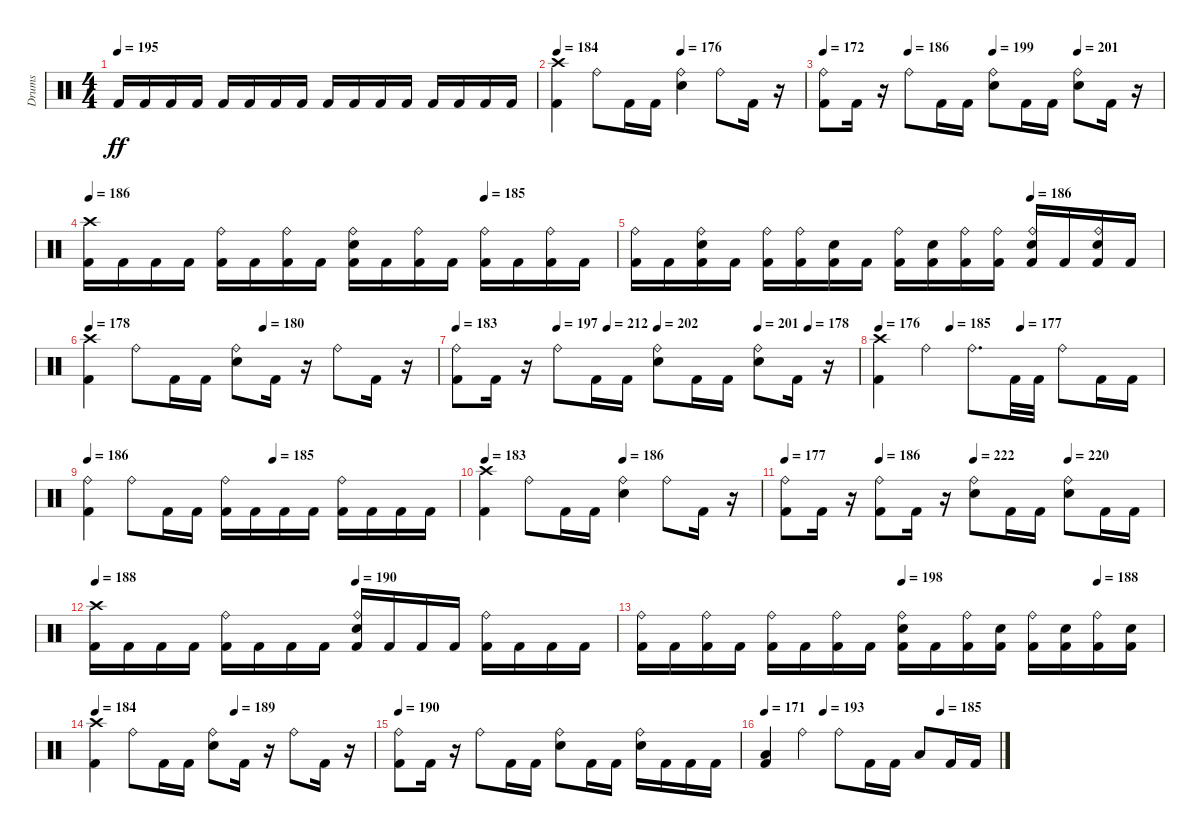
\track ("Drums" "Drums") {instrument percussion}
\staff {score}
\articulation defaults
\ts (4 4)
\tempo 195
\clef neutral
\ks c "Kick (hit) 2".16{dy ff} "Kick (hit) 2".16 "Kick (hit) 2".16 "Kick (hit) 2".16 "Kick (hit) 2".16 "Kick (hit) 2".16 "Kick (hit) 2".16 "Kick (hit) 2".16 "Kick (hit) 2".16 "Kick (hit) 2".16 "Kick (hit) 2".16 "Kick (hit) 2".16 "Kick (hit) 2".16 "Kick (hit) 2".16 "Kick (hit) 2".16 "Kick (hit) 2".16
|
\tempo 184
\tempo (176 0.5)
("Kick (hit) 2" "Crash high (hit)").4 "Ride (bell)".8 "Kick (hit) 2".16 "Kick (hit) 2".16 ("Snare (hit) 2" "Ride (bell)").4 "Ride (bell)".8 "Kick (hit) 2".16 r.16 |
\tempo 172
\tempo (186 0.25)
\tempo (199 0.5)
\tempo (201 0.75)
("Kick (hit) 2" "Ride (bell)").8 "Kick (hit) 2".16 r.16 "Ride (bell)".8 "Kick (hit) 2".16 "Kick (hit) 2".16 ("Snare (hit) 2" "Ride (bell)").8 "Kick (hit) 2".16 "Kick (hit) 2".16 ("Snare (hit) 2" "Ride (bell)").8 "Kick (hit) 2".16 r.16 |
\tempo 186
\tempo (185 0.75)
("Kick (hit) 2" "Crash high (hit)").16 "Kick (hit) 2".16 "Kick (hit) 2".16 "Kick (hit) 2".16 ("Kick (hit) 2" "Ride (bell)").16 "Kick (hit) 2".16 ("Kick (hit) 2" "Ride (bell)").16 "Kick (hit) 2".16 ("Kick (hit) 2" "Snare (hit) 2" "Ride (bell)").16 "Kick (hit) 2".16 ("Kick (hit) 2" "Ride (bell)").16 "Kick (hit) 2".16 ("Kick (hit) 2" "Ride (bell)").16 "Kick (hit) 2".16 ("Kick (hit) 2" "Ride (bell)").16 "Kick (hit) 2".16 |
\tempo (186 0.75)
("Kick (hit) 2" "Ride (bell)").16 "Kick (hit) 2".16 ("Kick (hit) 2" "Snare (hit) 2" "Ride (bell)").16 "Kick (hit) 2".16 ("Kick (hit) 2" "Ride (bell)").16 ("Kick (hit) 2" "Ride (bell)").16 ("Kick (hit) 2" "Snare (hit) 2").16 "Kick (hit) 2".16 ("Kick (hit) 2" "Ride (bell)").16 ("Kick (hit) 2" "Snare (hit) 2").16 ("Kick (hit) 2" "Ride (bell)").16 ("Kick (hit) 2" "Ride (bell)").16 ("Kick (hit) 2" "Snare (hit) 2" "Ride (bell)").16 "Kick (hit) 2".16 ("Kick (hit) 2" "Snare (hit) 2" "Ride (bell)").16 "Kick (hit) 2".16 |
\tempo 178
\tempo (180 0.5)
("Kick (hit) 2" "Crash high (hit)").4 "Ride (bell)".8 "Kick (hit) 2".16 "Kick (hit) 2".16 ("Snare (hit) 2" "Ride (bell)").8 "Kick (hit) 2".16 r.16 "Ride (bell)".8 "Kick (hit) 2".16 r.16 |
\tempo 183
\tempo (197 0.25)
\tempo (212 0.375)
\tempo (202 0.5)
\tempo (201 0.75)
\tempo (178 0.875)
("Kick (hit) 2" "Ride (bell)").8 "Kick (hit) 2".16 r.16 "Ride (bell)".8 "Kick (hit) 2".16 "Kick (hit) 2".16 ("Snare (hit) 2" "Ride (bell)").8 "Kick (hit) 2".16 "Kick (hit) 2".16 ("Snare (hit) 2" "Ride (bell)").8 "Kick (hit) 2".16 r.16 |
\tempo 176
\tempo (185 0.25)
\tempo (177 0.5)
("Kick (hit) 2" "Crash high (hit)").4 "Ride (bell)".4 "Ride (bell)".8{d} "Kick (hit) 2".32 "Kick (hit) 2".32 "Ride (bell)".8 "Kick (hit) 2".16 "Kick (hit) 2".16 |
\tempo 186
\tempo (185 0.5)
("Kick (hit) 2" "Ride (bell)").4 "Ride (bell)".8 "Kick (hit) 2".16 "Kick (hit) 2".16 ("Kick (hit) 2" "Ride (bell)").16 "Kick (hit) 2".16 "Kick (hit) 2".16 "Kick (hit) 2".16 ("Kick (hit) 2" "Ride (bell)").16 "Kick (hit) 2".16 "Kick (hit) 2".16 "Kick (hit) 2".16 |
\tempo 183
\tempo (186 0.5)
("Kick (hit) 2" "Crash high (hit)").4 "Ride (bell)".8 "Kick (hit) 2".16 "Kick (hit) 2".16 ("Snare (hit) 2" "Ride (bell)").4 "Ride (bell)".8 "Kick (hit) 2".16 r.16 |
\tempo 177
\tempo (186 0.25)
\tempo (222 0.5)
\tempo (220 0.75)
("Kick (hit) 2" "Ride (bell)").8 "Kick (hit) 2".16 r.16 ("Kick (hit) 2" "Ride (bell)").8 "Kick (hit) 2".16 r.16 ("Snare (hit) 2" "Ride (bell)").8 "Kick (hit) 2".16 "Kick (hit) 2".16 ("Snare (hit) 2" "Ride (bell)").8 "Kick (hit) 2".16 "Kick (hit) 2".16 |
\tempo 188
\tempo (190 0.5)
("Kick (hit) 2" "Crash high (hit)").16 "Kick (hit) 2".16 "Kick (hit) 2".16 "Kick (hit) 2".16 ("Kick (hit) 2" "Ride (bell)").16 "Kick (hit) 2".16 "Kick (hit) 2".16 "Kick (hit) 2".16 ("Kick (hit) 2" "Snare (hit) 2" "Ride (bell)").16 "Kick (hit) 2".16 "Kick (hit) 2".16 "Kick (hit) 2".16 ("Kick (hit) 2" "Ride (bell)").16 "Kick (hit) 2".16 "Kick (hit) 2".16 "Kick (hit) 2".16 |
\tempo (198 0.5)
\tempo (188 0.875)
("Kick (hit) 2" "Ride (bell)").16 "Kick (hit) 2".16 ("Kick (hit) 2" "Ride (bell)").16 "Kick (hit) 2".16 ("Kick (hit) 2" "Ride (bell)").16 "Kick (hit) 2".16 ("Kick (hit) 2" "Ride (bell)").16 "Kick (hit) 2".16 ("Kick (hit) 2" "Snare (hit) 2" "Ride (bell)").16 "Kick (hit) 2".16 ("Kick (hit) 2" "Ride (bell)").16 ("Kick (hit) 2" "Snare (hit) 2").16 ("Kick (hit) 2" "Ride (bell)").16 ("Kick (hit) 2" "Snare (hit) 2").16 ("Kick (hit) 2" "Ride (bell)").16 ("Kick (hit) 2" "Snare (hit) 2").16 |
\tempo 184
\tempo (189 0.5)
("Kick (hit) 2" "Crash high (hit)").4 "Ride (bell)".8 "Kick (hit) 2".16 "Kick (hit) 2".16 ("Snare (hit) 2" "Ride (bell)").8 "Kick (hit) 2".16 r.16 "Ride (bell)".8 "Kick (hit) 2".16 r.16 |
\tempo 190
("Kick (hit) 2" "Ride (bell)").8 "Kick (hit) 2".16 r.16 "Ride (bell)".8 "Kick (hit) 2".16 "Kick (hit) 2".16 ("Snare (hit) 2" "Ride (bell)").8 "Kick (hit) 2".16 "Kick (hit) 2".16 ("Snare (hit) 2" "Ride (bell)").16 "Kick (hit) 2".16 "Kick (hit) 2".16 "Kick (hit) 2".16 |
\tempo 171
\tempo (193 0.25)
\tempo (185 0.75)
("Kick (hit) 2" "Low Floor Tom (hit)").4 "Ride (bell)".4 "Ride (bell)".8 "Kick (hit) 2".16 "Kick (hit) 2".16 "Low Floor Tom (hit)".8 "Kick (hit) 2".16 "Kick (hit) 2".16
